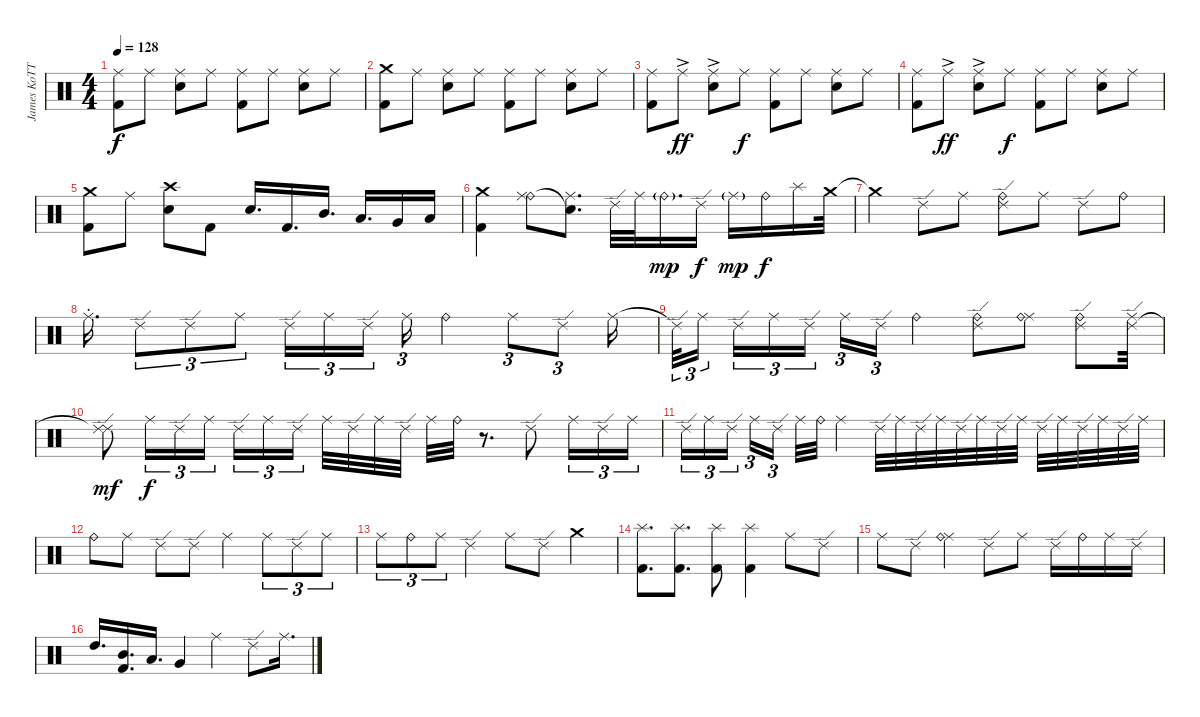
\track ("James KoTTak" "James KoTT") {instrument percussion}
\staff {score}
\articulation defaults
\ts (4 4)
\tempo 128
\clef neutral
\ks c
("Kick (hit) 2" "Ride (middle)").8{dy f} "Ride (middle)".8 ("Ride (middle)" "Snare (hit) 2").8 "Ride (middle)".8 ("Ride (middle)" "Kick (hit) 2").8 "Ride (middle)".8 ("Ride (middle)" "Snare (hit) 2").8 "Ride (middle)".8 |
("Kick (hit) 2" "Crash medium (hit)").8 "Ride (middle)".8 ("Ride (middle)" "Snare (hit) 2").8 "Ride (middle)".8 ("Ride (middle)" "Kick (hit) 2").8 "Ride (middle)".8 ("Ride (middle)" "Snare (hit) 2").8 "Ride (middle)".8 |
("Kick (hit) 2" "Ride (middle)").8 "Ride (middle)"{ac}.8{dy ff} ("Ride (middle)"{ac} "Snare (hit) 2").8 "Ride (middle)".8{dy f} ("Ride (middle)" "Kick (hit) 2").8 "Ride (middle)".8 ("Ride (middle)" "Snare (hit) 2").8 "Ride (middle)".8 |
("Kick (hit) 2" "Ride (middle)").8 "Ride (middle)"{ac}.8{dy ff} ("Ride (middle)"{ac} "Snare (hit) 2").8 "Ride (middle)".8{dy f} ("Ride (middle)" "Kick (hit) 2").8 "Ride (middle)".8 ("Ride (middle)" "Snare (hit) 2").8 "Ride (middle)".8 |
("Kick (hit) 2" "Crash medium (hit)").8 "Ride (middle)".8 ("Crash high (hit)" "Snare (hit) 2").8 "Kick (hit) 2".8 "Snare (hit) 2".16{d} "Kick (hit) 2".16{d} "Mid Tom (hit)".16{d} "Low Tom (hit)".16{d} "Very Low Tom (hit)".16 "Low Floor Tom (hit)".16 |
("Crash medium (hit)" "Kick (hit) 2").4 ("Ride (bell)" "Ride (middle)").8{bd 120} ("Snare (hit)"{t} "Ride (middle)").8{d} "Ride (edge) 2".32 "Ride (middle)".32 "Ride (bell)"{g}.16{d dy mp} "Ride (edge) 2".16{dy f} "Ride (middle)"{g}.16{dy mp} "Ride (bell)".16{dy f} "Splash (hit)".16 "Crash medium (hit)".32 |
"Crash medium (hit)"{t}.4 "Ride (edge) 2".8 "Ride (middle)".8 ("Ride (bell)" "Ride (edge) 2").8{bd 240} "Ride (middle)".8 "Ride (edge) 2".8 "Ride (bell)".8 |
"Ride (middle)"{st}.16{d} "Ride (edge) 2".8{tu (3 2)} "Ride (edge) 2".8{tu (3 2)} "Ride (middle)".8{tu (3 2)} "Ride (edge) 2".16{tu (3 2)} "Ride (middle)".16{tu (3 2)} "Ride (edge) 2".16{tu (3 2) beam splitsecondary} "Ride (middle)".16{tu (3 2)} "Ride (bell)".4 "Ride (middle)".8{tu (3 2)} "Ride (edge) 2".8{tu (3 2)} "Ride (middle)".16 |
"Ride (edge) 2"{t}.32{tu (3 2)} "Ride (middle)".16{tu (3 2) beam splitsecondary} "Ride (edge) 2".16{tu (3 2)} "Ride (middle)".16{tu (3 2)} "Ride (edge) 2".16{tu (3 2) beam splitsecondary} "Ride (middle)".16{tu (3 2)} "Ride (edge) 2".16{tu (3 2)} "Ride (bell)".4 ("Ride (edge) 2" "Ride (bell)").8{bd 240} ("Ride (middle)" "Ride (bell)").8{bu 240} ("Ride (edge) 2" "Ride (bell)").8{bd 240} ("Ride (edge) 2" "Ride (middle)").32{bd 240} |
("Ride (edge) 2"{t} "Ride (edge) 2").8{bd 240 dy mf} "Ride (middle)".16{tu (3 2) dy f} "Ride (edge) 2".16{tu (3 2)} "Ride (middle)".16{tu (3 2)} "Ride (edge) 2".16{tu (3 2)} "Ride (middle)".16{tu (3 2)} "Ride (edge) 2".16{tu (3 2) beam splitsecondary} "Ride (middle)".32 "Ride (edge) 2".32 "Ride (middle)".32 "Ride (edge) 2".32 "Ride (middle)".32 "Ride (bell)".32 r.8{d} "Ride (edge) 2".8 "Ride (middle)".16{tu (3 2)} "Ride (edge) 2".16{tu (3 2)} "Ride (middle)".16{tu (3 2)} |
"Ride (edge) 2".16{tu (3 2)} "Ride (middle)".16{tu (3 2)} "Ride (edge) 2".16{tu (3 2) beam splitsecondary} "Ride (middle)".16{tu (3 2)} "Ride (edge) 2".16{tu (3 2) beam splitsecondary} "Ride (middle)".32 "Ride (bell)".32 "Ride (middle)".4 "Ride (edge) 2".32 "Ride (middle)".32 "Ride (edge) 2".32 "Ride (middle)".32 "Ride (edge) 2".32 "Ride (middle)".32 "Ride (edge) 2".32 "Ride (middle)".32 "Ride (edge) 2".32 "Ride (middle)".32 "Ride (edge) 2".32 "Ride (middle)".32 "Ride (edge) 2".32 "Ride (middle)".32 |
"Ride (bell)".8 "Ride (middle)".8 "Ride (edge) 2".8 "Ride (edge) 2".8 "Ride (middle)".4 "Ride (middle)".8{tu (3 2)} "Ride (edge) 2".8{tu (3 2)} "Ride (middle)".8{tu (3 2)} |
"Ride (middle)".8{tu (3 2)} "Ride (bell)".8{tu (3 2)} "Ride (middle)".8{tu (3 2)} "Ride (edge) 2".4 "Ride (middle)".8 "Ride (edge) 2".8 "Crash medium (hit)".4 |
("Splash (hit)" "Kick (hit) 2").8{d} ("Splash (hit)" "Kick (hit) 2").8{d} ("Splash (hit)" "Kick (hit) 2").8 ("Splash (hit)" "Kick (hit) 2").4 "Ride (middle)".8 "Ride (edge) 2".8 |
"Ride (middle)".8 "Ride (edge) 2".8 ("Ride (middle)" "Ride (bell)").4{bd 240} "Ride (edge) 2".8 "Ride (middle)".8 "Ride (edge) 2".16 "Ride (bell)".16 "Ride (middle)".16 "Ride (edge) 2".16 |
"High Tom (hit)".16{d} ("Mid Tom (hit)" "Kick (hit) 2").16{d bd 120} "Low Tom (hit)".16{d} "Very Low Tom (hit)".4 "Ride (middle)".4 "Ride (edge) 2".8 "Ride (middle)".16{d}
